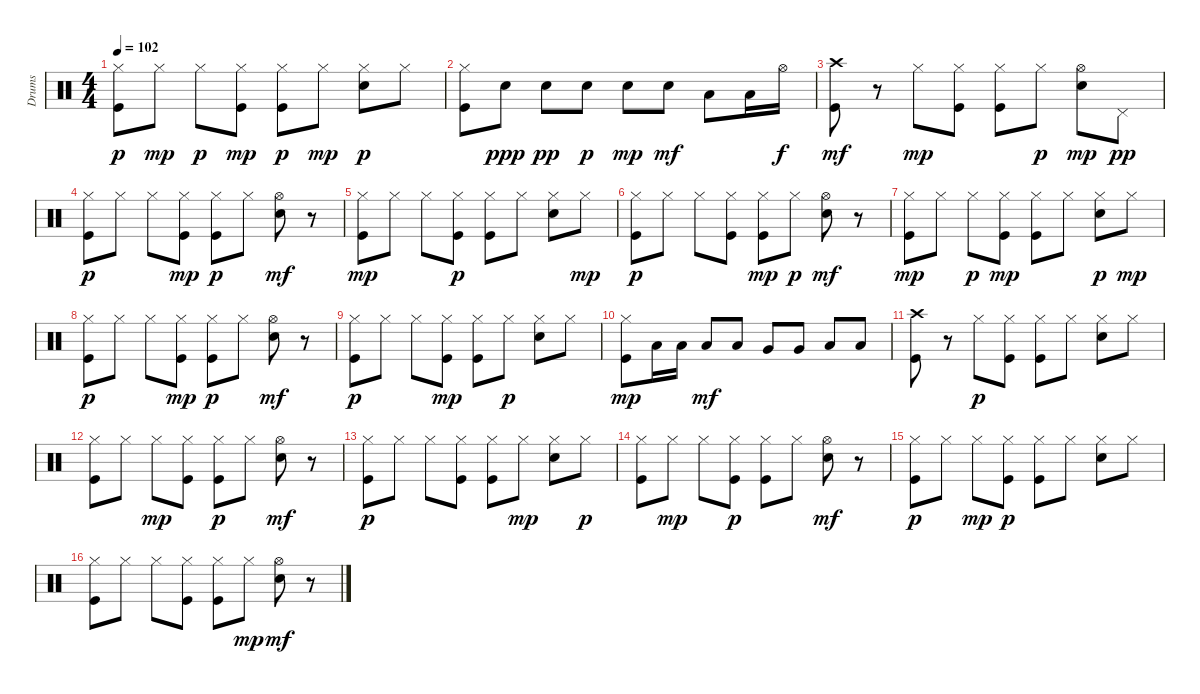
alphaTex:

\track ("Drums" "Drums") {instrument percussion}
\staff {score}
\articulation defaults
\ts (4 4)
\tempo 102
\clef neutral
\ks c
("Kick (hit)" "Hi-Hat (closed)").8{dy p} "Hi-Hat (closed)".8{dy mp} "Hi-Hat (closed)".8{dy p} ("Kick (hit)" "Hi-Hat (closed)").8{dy mp} ("Kick (hit)" "Hi-Hat (closed)").8{dy p} "Hi-Hat (closed)".8{dy mp} ("Snare (hit) 2" "Hi-Hat (closed)").8{dy p} "Hi-Hat (closed)".8 |
("Kick (hit)" "Hi-Hat (closed)").8 "Snare (hit) 2".8{dy ppp} "Snare (hit) 2".8{dy pp} "Snare (hit) 2".8{dy p} "Snare (hit) 2".8{dy mp} "Snare (hit) 2".8{dy mf} "Low Floor Tom (hit)".8 "Low Floor Tom (hit)".16 "Hi-Hat (open)".16{dy f} |
("Kick (hit)" "Crash high (hit)").8{dy mf} r.8 "Hi-Hat (closed)".8{dy mp} ("Kick (hit)" "Hi-Hat (closed)").8 ("Kick (hit)" "Hi-Hat (closed)").8 "Hi-Hat (closed)".8{dy p} ("Snare (hit) 2" "Hi-Hat (open)").8{dy mp} "Pedal Hi-Hat (hit)".8{dy pp} |
("Kick (hit)" "Hi-Hat (closed)").8{dy p} "Hi-Hat (closed)".8 "Hi-Hat (closed)".8 ("Kick (hit)" "Hi-Hat (closed)").8{dy mp} ("Kick (hit)" "Hi-Hat (closed)").8{dy p} "Hi-Hat (closed)".8 ("Hi-Hat (open)" "Snare (hit) 2").8{dy mf} r.8 |
("Kick (hit)" "Hi-Hat (closed)").8{dy mp} "Hi-Hat (closed)".8 "Hi-Hat (closed)".8 ("Kick (hit)" "Hi-Hat (closed)").8{dy p} ("Kick (hit)" "Hi-Hat (closed)").8 "Hi-Hat (closed)".8 ("Snare (hit) 2" "Hi-Hat (closed)").8 "Hi-Hat (closed)".8{dy mp} |
("Kick (hit)" "Hi-Hat (closed)").8{dy p} "Hi-Hat (closed)".8 "Hi-Hat (closed)".8 ("Kick (hit)" "Hi-Hat (closed)").8 ("Kick (hit)" "Hi-Hat (closed)").8{dy mp} "Hi-Hat (closed)".8{dy p} ("Hi-Hat (open)" "Snare (hit) 2").8{dy mf} r.8 |
("Kick (hit)" "Hi-Hat (closed)").8{dy mp} "Hi-Hat (closed)".8 "Hi-Hat (closed)".8{dy p} ("Kick (hit)" "Hi-Hat (closed)").8{dy mp} ("Kick (hit)" "Hi-Hat (closed)").8 "Hi-Hat (closed)".8 ("Snare (hit) 2" "Hi-Hat (closed)").8{dy p} "Hi-Hat (closed)".8{dy mp} |
("Kick (hit)" "Hi-Hat (closed)").8{dy p} "Hi-Hat (closed)".8 "Hi-Hat (closed)".8 ("Kick (hit)" "Hi-Hat (closed)").8{dy mp} ("Kick (hit)" "Hi-Hat (closed)").8{dy p} "Hi-Hat (closed)".8 ("Hi-Hat (open)" "Snare (hit) 2").8{dy mf} r.8 |
("Kick (hit)" "Hi-Hat (closed)").8{dy p} "Hi-Hat (closed)".8 "Hi-Hat (closed)".8 ("Kick (hit)" "Hi-Hat (closed)").8{dy mp} ("Kick (hit)" "Hi-Hat (closed)").8 "Hi-Hat (closed)".8{dy p} ("Snare (hit) 2" "Hi-Hat (closed)").8 "Hi-Hat (closed)".8 |
("Kick (hit)" "Hi-Hat (closed)").8{dy mp} "Low Tom (hit)".16 "Low Tom (hit)".16 "Low Tom (hit)".8{dy mf} "Low Tom (hit)".8 "Very Low Tom (hit)".8 "Very Low Tom (hit)".8 "Low Floor Tom (hit)".8 "Low Floor Tom (hit)".8 |
("Crash high (hit)" "Kick (hit)").8 r.8 "Hi-Hat (closed)".8{dy p} ("Kick (hit)" "Hi-Hat (closed)").8 ("Kick (hit)" "Hi-Hat (closed)").8 "Hi-Hat (closed)".8 ("Snare (hit) 2" "Hi-Hat (closed)").8 "Hi-Hat (closed)".8 |
("Kick (hit)" "Hi-Hat (closed)").8 "Hi-Hat (closed)".8 "Hi-Hat (closed)".8{dy mp} ("Kick (hit)" "Hi-Hat (closed)").8 ("Kick (hit)" "Hi-Hat (closed)").8{dy p} "Hi-Hat (closed)".8 ("Hi-Hat (open)" "Snare (hit) 2").8{dy mf} r.8 |
("Kick (hit)" "Hi-Hat (closed)").8{dy p} "Hi-Hat (closed)".8 "Hi-Hat (closed)".8 ("Kick (hit)" "Hi-Hat (closed)").8 ("Kick (hit)" "Hi-Hat (closed)").8 "Hi-Hat (closed)".8{dy mp} ("Snare (hit) 2" "Hi-Hat (closed)").8 "Hi-Hat (closed)".8{dy p} |
("Kick (hit)" "Hi-Hat (closed)").8 "Hi-Hat (closed)".8{dy mp} "Hi-Hat (closed)".8 ("Kick (hit)" "Hi-Hat (closed)").8{dy p} ("Kick (hit)" "Hi-Hat (closed)").8 "Hi-Hat (closed)".8 ("Hi-Hat (open)" "Snare (hit) 2").8{dy mf} r.8 |
("Kick (hit)" "Hi-Hat (closed)").8{dy p} "Hi-Hat (closed)".8 "Hi-Hat (closed)".8{dy mp} ("Kick (hit)" "Hi-Hat (closed)").8{dy p} ("Kick (hit)" "Hi-Hat (closed)").8 "Hi-Hat (closed)".8 ("Snare (hit) 2" "Hi-Hat (closed)").8 "Hi-Hat (closed)".8 |
("Kick (hit)" "Hi-Hat (closed)").8 "Hi-Hat (closed)".8 "Hi-Hat (closed)".8 ("Kick (hit)" "Hi-Hat (closed)").8 ("Kick (hit)" "Hi-Hat (closed)").8 "Hi-Hat (closed)".8{dy mp} ("Hi-Hat (open)" "Snare (hit) 2").8{dy mf} r.8
